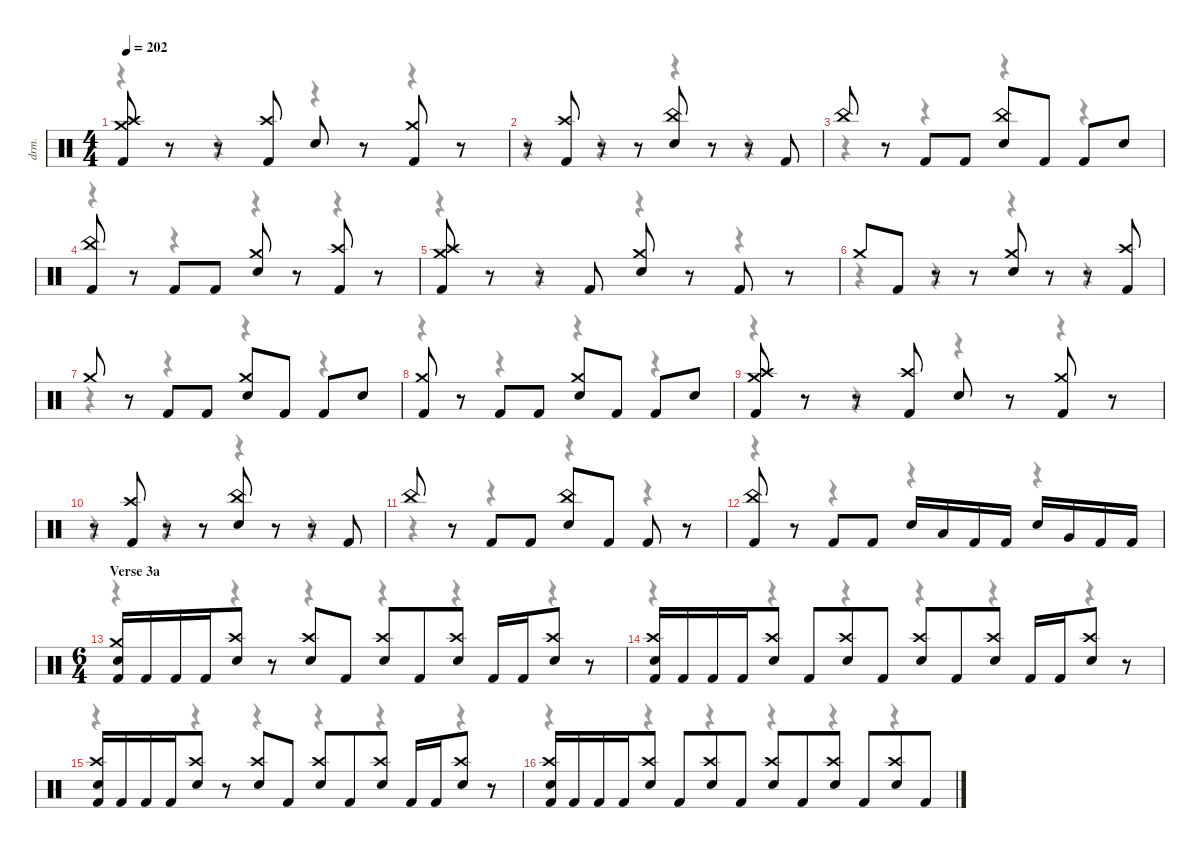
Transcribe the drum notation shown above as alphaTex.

\defaultSystemsLayout 4
\hideDynamics
\bracketExtendMode nobrackets
\track ("Alex Ballew" "drm.") {instrument percussion}
\staff {score}
\articulation defaults
\voice
\ts (4 4)
\tempo 202
\clef neutral
\ks c
("Crash medium (hit)" "Crash high (hit)" "Kick (hit) 2").8{dy f beam Up} r.8{beam Up} r.8{beam Up} ("Crash high (hit)" "Kick (hit) 2").8{beam Up} "Snare (hit) 2".8{beam Up} r.8{beam Up} ("Crash medium (hit)" "Kick (hit) 2").8{beam Up} r.8{beam Up} |
r.8{beam Up} ("Crash high (hit)" "Kick (hit) 2").8{beam Up} r.8{beam Up} r.8{beam Up} ("China (hit)" "Snare (hit) 2").8{beam Up} r.8{beam Up} r.8{beam Up} "Kick (hit) 2".8{beam Up} |
"China (hit)".8{beam Up} r.8{beam Up} "Kick (hit) 2".8{beam Up} "Kick (hit) 2".8{beam Up} ("China (hit)" "Snare (hit) 2").8{beam Up} "Kick (hit) 2".8{beam Up} "Kick (hit) 2".8{beam Up} "Snare (hit) 2".8{beam Up} |
("China (hit)" "Kick (hit) 2").8{beam Up} r.8{beam Up} "Kick (hit) 2".8{beam Up} "Kick (hit) 2".8{beam Up} ("Crash medium (hit)" "Snare (hit) 2").8{beam Up} r.8{beam Up} ("Crash high (hit)" "Kick (hit) 2").8{beam Up} r.8{beam Up} |
("Crash medium (hit)" "Crash high (hit)" "Kick (hit) 2").8{beam Up} r.8{beam Up} r.8{beam Up} "Kick (hit) 2".8{beam Up} ("Crash medium (hit)" "Snare (hit) 2").8{beam Up} r.8{beam Up} "Kick (hit) 2".8{beam Up} r.8{beam Up} |
"Crash medium (hit)".8{beam Up} "Kick (hit) 2".8{beam Up} r.8{beam Up} r.8{beam Up} ("Crash medium (hit)" "Snare (hit) 2").8{beam Up} r.8{beam Up} r.8{beam Up} ("Crash high (hit)" "Kick (hit) 2").8{beam Up} |
"Crash medium (hit)".8{beam Up} r.8{beam Up} "Kick (hit) 2".8{beam Up} "Kick (hit) 2".8{beam Up} ("Crash medium (hit)" "Snare (hit) 2").8{beam Up} "Kick (hit) 2".8{beam Up} "Kick (hit) 2".8{beam Up} "Snare (hit) 2".8{beam Up} |
("Crash medium (hit)" "Kick (hit) 2").8{beam Up} r.8{beam Up} "Kick (hit) 2".8{beam Up} "Kick (hit) 2".8{beam Up} ("Crash medium (hit)" "Snare (hit) 2").8{beam Up} "Kick (hit) 2".8{beam Up} "Kick (hit) 2".8{beam Up} "Snare (hit) 2".8{beam Up} |
("Crash medium (hit)" "Crash high (hit)" "Kick (hit) 2").8{beam Up} r.8{beam Up} r.8{beam Up} ("Crash high (hit)" "Kick (hit) 2").8{beam Up} "Snare (hit) 2".8{beam Up} r.8{beam Up} ("Crash medium (hit)" "Kick (hit) 2").8{beam Up} r.8{beam Up} |
r.8{beam Up} ("Crash high (hit)" "Kick (hit) 2").8{beam Up} r.8{beam Up} r.8{beam Up} ("China (hit)" "Snare (hit) 2").8{beam Up} r.8{beam Up} r.8{beam Up} "Kick (hit) 2".8{beam Up} |
"China (hit)".8{beam Up} r.8{beam Up} "Kick (hit) 2".8{beam Up} "Kick (hit) 2".8{beam Up} ("China (hit)" "Snare (hit) 2").8{beam Up} "Kick (hit) 2".8{beam Up} "Kick (hit) 2".8{beam Up} r.8{beam Up} |
("China (hit)" "Kick (hit) 2").8{beam Up} r.8{beam Up} "Kick (hit) 2".8{beam Up} "Kick (hit) 2".8{beam Up} "Snare (hit) 2".16{beam Up} "Low Tom (hit)".16{beam Up} "Kick (hit) 2".16{beam Up} "Kick (hit) 2".16{beam Up} "Snare (hit) 2".16{beam Up} "Very Low Tom (hit)".16{beam Up} "Kick (hit) 2".16{beam Up} "Kick (hit) 2".16{beam Up} |
\ts (6 4)
\beaming (8 3 3 3 3)
\section ("" "Verse 3a")
("Crash medium (hit)" "Snare (hit) 2" "Kick (hit) 2").16{beam Up} "Kick (hit) 2".16{beam Up} "Kick (hit) 2".16{beam Up} "Kick (hit) 2".16{beam Up} ("Crash high (hit)" "Snare (hit) 2").8{beam Up} r.8{beam Up} ("Crash high (hit)" "Snare (hit) 2").8{beam Up} "Kick (hit) 2".8{beam Up} ("Crash high (hit)" "Snare (hit) 2").8{beam Up} "Kick (hit) 2".8{beam Up} ("Crash high (hit)" "Snare (hit) 2").8{beam Up} "Kick (hit) 2".16{beam Up} "Kick (hit) 2".16{beam Up} ("Crash high (hit)" "Snare (hit) 2").8{beam Up} r.8{beam Up} |
("Crash high (hit)" "Snare (hit) 2" "Kick (hit) 2").16{beam Up} "Kick (hit) 2".16{beam Up} "Kick (hit) 2".16{beam Up} "Kick (hit) 2".16{beam Up} ("Crash high (hit)" "Snare (hit) 2").8{beam Up} "Kick (hit) 2".8{beam Up} ("Crash high (hit)" "Snare (hit) 2").8{beam Up} "Kick (hit) 2".8{beam Up} ("Crash high (hit)" "Snare (hit) 2").8{beam Up} "Kick (hit) 2".8{beam Up} ("Crash high (hit)" "Snare (hit) 2").8{beam Up} "Kick (hit) 2".16{beam Up} "Kick (hit) 2".16{beam Up} ("Crash high (hit)" "Snare (hit) 2").8{beam Up} r.8{beam Up} |
("Crash high (hit)" "Snare (hit) 2" "Kick (hit) 2").16{beam Up} "Kick (hit) 2".16{beam Up} "Kick (hit) 2".16{beam Up} "Kick (hit) 2".16{beam Up} ("Crash high (hit)" "Snare (hit) 2").8{beam Up} r.8{beam Up} ("Crash high (hit)" "Snare (hit) 2").8{beam Up} "Kick (hit) 2".8{beam Up} ("Crash high (hit)" "Snare (hit) 2").8{beam Up} "Kick (hit) 2".8{beam Up} ("Crash high (hit)" "Snare (hit) 2").8{beam Up} "Kick (hit) 2".16{beam Up} "Kick (hit) 2".16{beam Up} ("Crash high (hit)" "Snare (hit) 2").8{beam Up} r.8{beam Up} |
("Crash high (hit)" "Snare (hit) 2" "Kick (hit) 2").16{beam Up} "Kick (hit) 2".16{beam Up} "Kick (hit) 2".16{beam Up} "Kick (hit) 2".16{beam Up} ("Crash high (hit)" "Snare (hit) 2").8{beam Up} "Kick (hit) 2".8{beam Up} ("Crash high (hit)" "Snare (hit) 2").8{beam Up} "Kick (hit) 2".8{beam Up} ("Crash high (hit)" "Snare (hit) 2").8{beam Up} "Kick (hit) 2".8{beam Up} ("Crash high (hit)" "Snare (hit) 2").8{beam Up} "Kick (hit) 2".8{beam Up} ("Crash high (hit)" "Snare (hit) 2").8{beam Up} "Kick (hit) 2".8{beam Up}
\voice
\clef neutral
\ottava regular
\simile none
\ks c
r.4{dy mf beam Down} r.4{beam Down} r.4{beam Down} r.4{beam Down} |
r.4{beam Down} r.4{beam Down} r.4{beam Down} r.4{beam Down} |
r.4{beam Down} r.4{beam Down} r.4{beam Down} r.4{beam Down} |
r.4{beam Down} r.4{beam Down} r.4{beam Down} r.4{beam Down} |
r.4{beam Down} r.4{beam Down} r.4{beam Down} r.4{beam Down} |
r.4{beam Down} r.4{beam Down} r.4{beam Down} r.4{beam Down} |
r.4{beam Down} r.4{beam Down} r.4{beam Down} r.4{beam Down} |
r.4{beam Down} r.4{beam Down} r.4{beam Down} r.4{beam Down} |
r.4{beam Down} r.4{beam Down} r.4{beam Down} r.4{beam Down} |
r.4{beam Down} r.4{beam Down} r.4{beam Down} r.4{beam Down} |
r.4{beam Down} r.4{beam Down} r.4{beam Down} r.4{beam Down} |
r.4{beam Down} r.4{beam Down} r.4{beam Down} r.4{beam Down} |
r.4{beam Down} r.4{beam Down} r.4{beam Down} r.4{beam Down} r.4{beam Down} r.4{beam Down} |
r.4{beam Down} r.4{beam Down} r.4{beam Down} r.4{beam Down} r.4{beam Down} r.4{beam Down} |
r.4{beam Down} r.4{beam Down} r.4{beam Down} r.4{beam Down} r.4{beam Down} r.4{beam Down} |
r.4{beam Down} r.4{beam Down} r.4{beam Down} r.4{beam Down} r.4{beam Down} r.4{beam Down}
